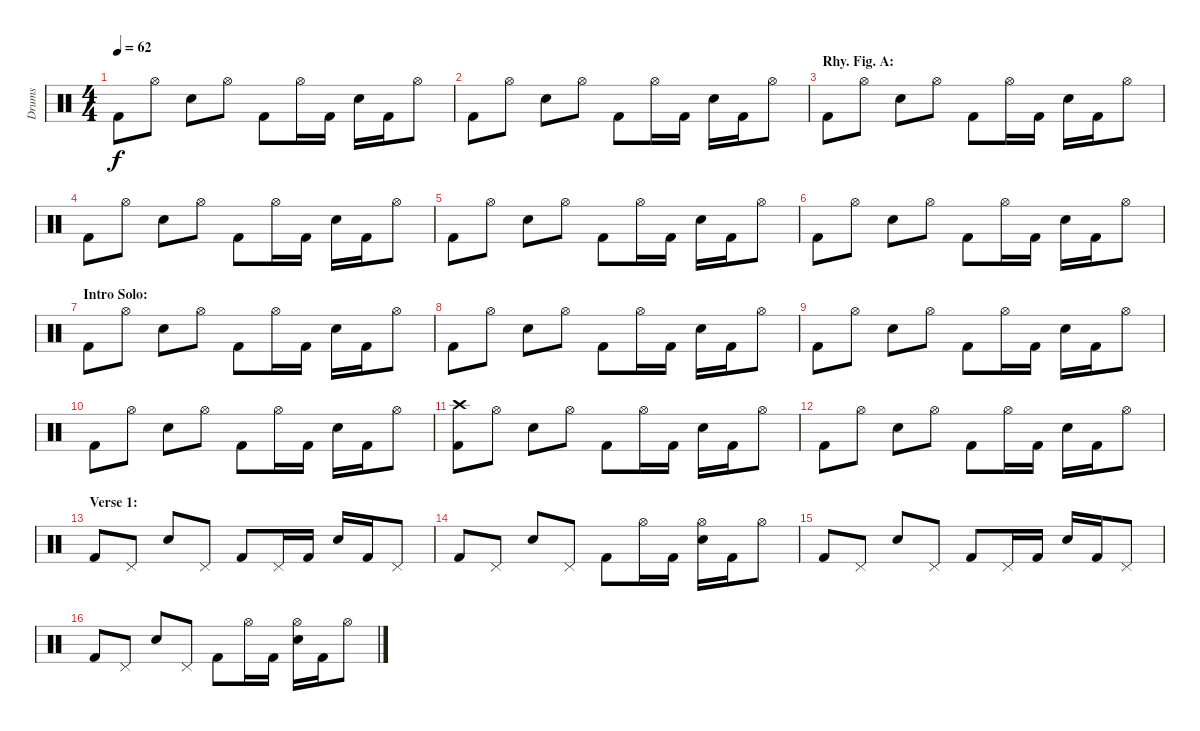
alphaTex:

\track ("Drums" "Drums") {instrument percussion}
\staff {score}
\articulation defaults
\ts (4 4)
\tempo 62
\clef neutral
\ks c "Kick (hit) 2".8{dy f} "Hi-Hat (open)".8 "Snare (hit) 2".8 "Hi-Hat (open)".8 "Kick (hit) 2".8 "Hi-Hat (open)".16 "Kick (hit) 2".16 "Snare (hit) 2".16 "Kick (hit) 2".16 "Hi-Hat (open)".8
|
"Kick (hit) 2".8 "Hi-Hat (open)".8 "Snare (hit) 2".8 "Hi-Hat (open)".8 "Kick (hit) 2".8 "Hi-Hat (open)".16 "Kick (hit) 2".16 "Snare (hit) 2".16 "Kick (hit) 2".16 "Hi-Hat (open)".8 |
\section ("" "Rhy. Fig. A:")
"Kick (hit) 2".8 "Hi-Hat (open)".8 "Snare (hit) 2".8 "Hi-Hat (open)".8 "Kick (hit) 2".8 "Hi-Hat (open)".16 "Kick (hit) 2".16 "Snare (hit) 2".16 "Kick (hit) 2".16 "Hi-Hat (open)".8 |
"Kick (hit) 2".8 "Hi-Hat (open)".8 "Snare (hit) 2".8 "Hi-Hat (open)".8 "Kick (hit) 2".8 "Hi-Hat (open)".16 "Kick (hit) 2".16 "Snare (hit) 2".16 "Kick (hit) 2".16 "Hi-Hat (open)".8 |
"Kick (hit) 2".8 "Hi-Hat (open)".8 "Snare (hit) 2".8 "Hi-Hat (open)".8 "Kick (hit) 2".8 "Hi-Hat (open)".16 "Kick (hit) 2".16 "Snare (hit) 2".16 "Kick (hit) 2".16 "Hi-Hat (open)".8 |
"Kick (hit) 2".8 "Hi-Hat (open)".8 "Snare (hit) 2".8 "Hi-Hat (open)".8 "Kick (hit) 2".8 "Hi-Hat (open)".16 "Kick (hit) 2".16 "Snare (hit) 2".16 "Kick (hit) 2".16 "Hi-Hat (open)".8 |
\section ("" "Intro Solo:")
"Kick (hit) 2".8 "Hi-Hat (open)".8 "Snare (hit) 2".8 "Hi-Hat (open)".8 "Kick (hit) 2".8 "Hi-Hat (open)".16 "Kick (hit) 2".16 "Snare (hit) 2".16 "Kick (hit) 2".16 "Hi-Hat (open)".8 |
"Kick (hit) 2".8 "Hi-Hat (open)".8 "Snare (hit) 2".8 "Hi-Hat (open)".8 "Kick (hit) 2".8 "Hi-Hat (open)".16 "Kick (hit) 2".16 "Snare (hit) 2".16 "Kick (hit) 2".16 "Hi-Hat (open)".8 |
"Kick (hit) 2".8 "Hi-Hat (open)".8 "Snare (hit) 2".8 "Hi-Hat (open)".8 "Kick (hit) 2".8 "Hi-Hat (open)".16 "Kick (hit) 2".16 "Snare (hit) 2".16 "Kick (hit) 2".16 "Hi-Hat (open)".8 |
"Kick (hit) 2".8 "Hi-Hat (open)".8 "Snare (hit) 2".8 "Hi-Hat (open)".8 "Kick (hit) 2".8 "Hi-Hat (open)".16 "Kick (hit) 2".16 "Snare (hit) 2".16 "Kick (hit) 2".16 "Hi-Hat (open)".8 |
("Crash high (hit)" "Kick (hit) 2").8 "Hi-Hat (open)".8 "Snare (hit) 2".8 "Hi-Hat (open)".8 "Kick (hit) 2".8 "Hi-Hat (open)".16 "Kick (hit) 2".16 "Snare (hit) 2".16 "Kick (hit) 2".16 "Hi-Hat (open)".8 |
"Kick (hit) 2".8 "Hi-Hat (open)".8 "Snare (hit) 2".8 "Hi-Hat (open)".8 "Kick (hit) 2".8 "Hi-Hat (open)".16 "Kick (hit) 2".16 "Snare (hit) 2".16 "Kick (hit) 2".16 "Hi-Hat (open)".8 |
\section ("" "Verse 1:")
"Kick (hit) 2".8 "Pedal Hi-Hat (hit)".8 "Snare (hit) 2".8 "Pedal Hi-Hat (hit)".8 "Kick (hit) 2".8 "Pedal Hi-Hat (hit)".16 "Kick (hit) 2".16 "Snare (hit) 2".16 "Kick (hit) 2".16 "Pedal Hi-Hat (hit)".8 |
"Kick (hit) 2".8 "Pedal Hi-Hat (hit)".8 "Snare (hit) 2".8 "Pedal Hi-Hat (hit)".8 "Kick (hit) 2".8 "Hi-Hat (open)".16 "Kick (hit) 2".16 ("Hi-Hat (open)" "Snare (hit) 2").16 "Kick (hit) 2".16 "Hi-Hat (open)".8 |
"Kick (hit) 2".8 "Pedal Hi-Hat (hit)".8 "Snare (hit) 2".8 "Pedal Hi-Hat (hit)".8 "Kick (hit) 2".8 "Pedal Hi-Hat (hit)".16 "Kick (hit) 2".16 "Snare (hit) 2".16 "Kick (hit) 2".16 "Pedal Hi-Hat (hit)".8 |
"Kick (hit) 2".8 "Pedal Hi-Hat (hit)".8 "Snare (hit) 2".8 "Pedal Hi-Hat (hit)".8 "Kick (hit) 2".8 "Hi-Hat (open)".16 "Kick (hit) 2".16 ("Hi-Hat (open)" "Snare (hit) 2").16 "Kick (hit) 2".16 "Hi-Hat (open)".8
